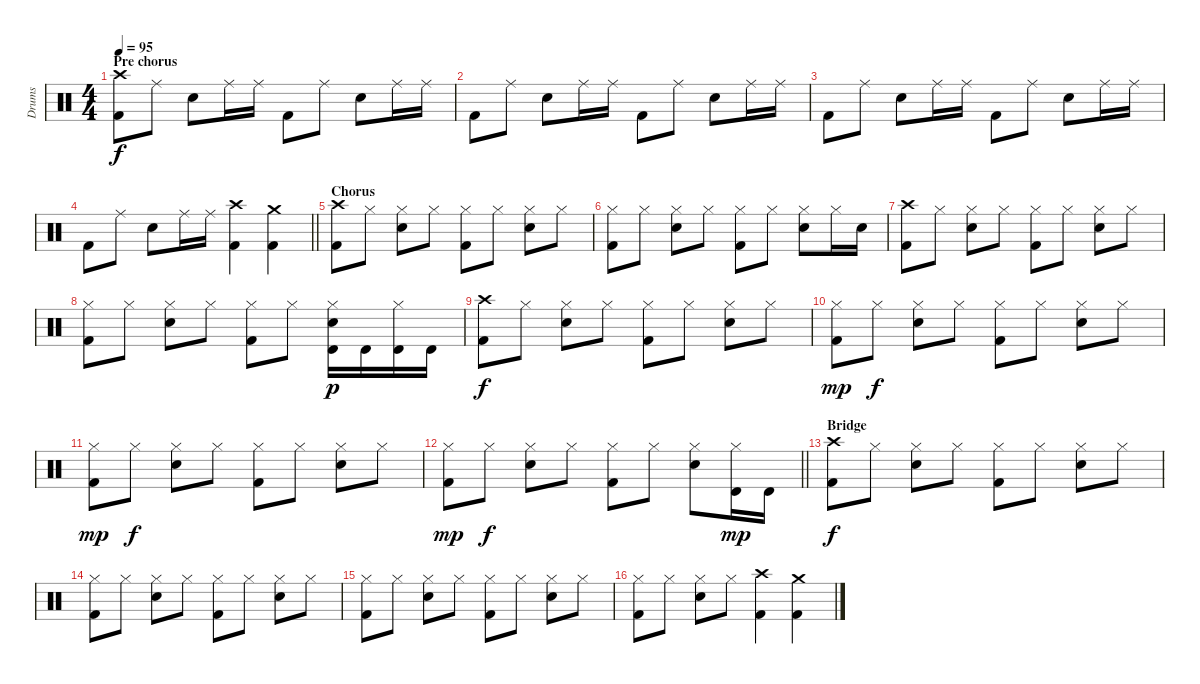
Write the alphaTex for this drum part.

\track ("Drums" "Drums") {instrument percussion}
\staff {score}
\articulation defaults
\ts (4 4)
\section ("" "Pre chorus")
\tempo 95
\clef neutral
\ks c
("Crash high (hit)" "Kick (hit) 2").8{dy f} "Ride (middle)".8 "Snare (hit) 2".8 "Ride (middle)".16 "Ride (middle)".16 "Kick (hit) 2".8 "Ride (middle)".8 "Snare (hit) 2".8 "Ride (middle)".16 "Ride (middle)".16 |
"Kick (hit) 2".8 "Ride (middle)".8 "Snare (hit) 2".8 "Ride (middle)".16 "Ride (middle)".16 "Kick (hit) 2".8 "Ride (middle)".8 "Snare (hit) 2".8 "Ride (middle)".16 "Ride (middle)".16 |
"Kick (hit) 2".8 "Ride (middle)".8 "Snare (hit) 2".8 "Ride (middle)".16 "Ride (middle)".16 "Kick (hit) 2".8 "Ride (middle)".8 "Snare (hit) 2".8 "Ride (middle)".16 "Ride (middle)".16 |
\barLineRight lightlight "Kick (hit) 2".8 "Ride (middle)".8 "Snare (hit) 2".8 "Ride (middle)".16 "Ride (middle)".16
("Crash high (hit)" "Kick (hit) 2").4 ("Crash medium (hit)" "Kick (hit) 2").4 |
\section ("" "Chorus")
("Crash high (hit)" "Kick (hit) 2").8 "Hi-Hat (closed)".8 ("Hi-Hat (closed)" "Snare (hit) 2").8 "Hi-Hat (closed)".8 ("Hi-Hat (closed)" "Kick (hit) 2").8 "Hi-Hat (closed)".8 ("Hi-Hat (closed)" "Snare (hit) 2").8 "Hi-Hat (closed)".8 |
("Hi-Hat (closed)" "Kick (hit) 2").8 "Hi-Hat (closed)".8 ("Hi-Hat (closed)" "Snare (hit) 2").8 "Hi-Hat (closed)".8 ("Hi-Hat (closed)" "Kick (hit) 2").8 "Hi-Hat (closed)".8 ("Hi-Hat (closed)" "Snare (hit) 2").8 "Hi-Hat (closed)".16 "Snare (hit) 2".16 |
("Crash high (hit)" "Kick (hit) 2").8 "Hi-Hat (closed)".8 ("Hi-Hat (closed)" "Snare (hit) 2").8 "Hi-Hat (closed)".8 ("Hi-Hat (closed)" "Kick (hit) 2").8 "Hi-Hat (closed)".8 ("Hi-Hat (closed)" "Snare (hit) 2").8 "Hi-Hat (closed)".8 |
("Hi-Hat (closed)" "Kick (hit) 2").8 "Hi-Hat (closed)".8 ("Hi-Hat (closed)" "Snare (hit) 2").8 "Hi-Hat (closed)".8 ("Hi-Hat (closed)" "Kick (hit) 2").8 "Hi-Hat (closed)".8 ("Hi-Hat (closed)" "Snare (hit) 2" "Timbale high (hit)").16{dy p} "Timbale high (hit)".16 ("Hi-Hat (closed)" "Timbale high (hit)").16 "Timbale high (hit)".16 |
("Crash high (hit)" "Kick (hit) 2").8{dy f} "Hi-Hat (closed)".8 ("Hi-Hat (closed)" "Snare (hit) 2").8 "Hi-Hat (closed)".8 ("Hi-Hat (closed)" "Kick (hit) 2").8 "Hi-Hat (closed)".8 ("Hi-Hat (closed)" "Snare (hit) 2").8 "Hi-Hat (closed)".8 |
("Hi-Hat (closed)" "Kick (hit) 2").8{dy mp} "Hi-Hat (closed)".8{dy f} ("Hi-Hat (closed)" "Snare (hit) 2").8 "Hi-Hat (closed)".8 ("Hi-Hat (closed)" "Kick (hit) 2").8 "Hi-Hat (closed)".8 ("Hi-Hat (closed)" "Snare (hit) 2").8 "Hi-Hat (closed)".8 |
("Hi-Hat (closed)" "Kick (hit) 2").8{dy mp} "Hi-Hat (closed)".8{dy f} ("Hi-Hat (closed)" "Snare (hit) 2").8 "Hi-Hat (closed)".8 ("Hi-Hat (closed)" "Kick (hit) 2").8 "Hi-Hat (closed)".8 ("Hi-Hat (closed)" "Snare (hit) 2").8 "Hi-Hat (closed)".8 |
\barLineRight lightlight
("Hi-Hat (closed)" "Kick (hit) 2").8{dy mp} "Hi-Hat (closed)".8{dy f} ("Hi-Hat (closed)" "Snare (hit) 2").8 "Hi-Hat (closed)".8 ("Hi-Hat (closed)" "Kick (hit) 2").8 "Hi-Hat (closed)".8 ("Hi-Hat (closed)" "Snare (hit) 2").8 ("Hi-Hat (closed)" "Timbale high (hit)").16{dy mp} "Timbale high (hit)".16 |
\section ("" "Bridge")
("Crash high (hit)" "Kick (hit) 2").8{dy f} "Hi-Hat (closed)".8 ("Hi-Hat (closed)" "Snare (hit) 2").8 "Hi-Hat (closed)".8 ("Hi-Hat (closed)" "Kick (hit) 2").8 "Hi-Hat (closed)".8 ("Hi-Hat (closed)" "Snare (hit) 2").8 "Hi-Hat (closed)".8 |
("Hi-Hat (closed)" "Kick (hit) 2").8 "Hi-Hat (closed)".8 ("Hi-Hat (closed)" "Snare (hit) 2").8 "Hi-Hat (closed)".8 ("Hi-Hat (closed)" "Kick (hit) 2").8 "Hi-Hat (closed)".8 ("Hi-Hat (closed)" "Snare (hit) 2").8 "Hi-Hat (closed)".8 |
("Hi-Hat (closed)" "Kick (hit) 2").8 "Hi-Hat (closed)".8 ("Hi-Hat (closed)" "Snare (hit) 2").8 "Hi-Hat (closed)".8 ("Hi-Hat (closed)" "Kick (hit) 2").8 "Hi-Hat (closed)".8 ("Hi-Hat (closed)" "Snare (hit) 2").8 "Hi-Hat (closed)".8 |
("Hi-Hat (closed)" "Kick (hit) 2").8 "Hi-Hat (closed)".8 ("Hi-Hat (closed)" "Snare (hit) 2").8 "Hi-Hat (closed)".8 ("Crash high (hit)" "Kick (hit) 2").4 ("Crash medium (hit)" "Kick (hit) 2").4
